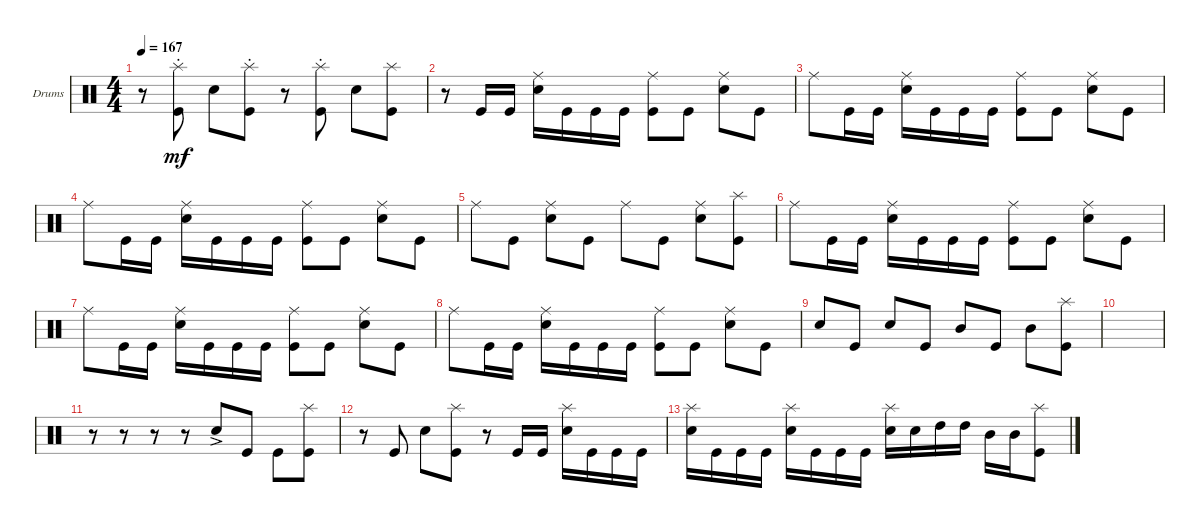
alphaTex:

\bracketExtendMode groupsimilarinstruments
\firstSystemTrackNameOrientation horizontal
\otherSystemsTrackNameOrientation horizontal
\track ("Drumkit" "Drums") {instrument percussion}
\staff {score}
\articulation defaults
\ts (4 4)
\tempo 167
\clef neutral
\ks c
r.8{dy mf} ("Splash (hit)"{st} "Kick (hit)").8 "Snare (hit) 2".8 ("Splash (hit)"{st} "Kick (hit)").8 r.8 ("Splash (hit)"{st} "Kick (hit)").8 "Snare (hit) 2".8 ("Kick (hit)" "Splash (hit)").8 |
r.8 "Kick (hit)".16 "Kick (hit)".16 ("Snare (hit) 2" "Ride (middle)").16 "Kick (hit)".16 "Kick (hit)".16 "Kick (hit)".16 ("Kick (hit)" "Ride (middle)").8 "Kick (hit)".8 ("Snare (hit) 2" "Ride (middle)").8 "Kick (hit)".8 |
"Ride (middle)".8 "Kick (hit)".16 "Kick (hit)".16 ("Snare (hit) 2" "Ride (middle)").16 "Kick (hit)".16 "Kick (hit)".16 "Kick (hit)".16 ("Kick (hit)" "Ride (middle)").8 "Kick (hit)".8 ("Snare (hit) 2" "Ride (middle)").8 "Kick (hit)".8 |
"Ride (middle)".8 "Kick (hit)".16 "Kick (hit)".16 ("Snare (hit) 2" "Ride (middle)").16 "Kick (hit)".16 "Kick (hit)".16 "Kick (hit)".16 ("Kick (hit)" "Ride (middle)").8 "Kick (hit)".8 ("Snare (hit) 2" "Ride (middle)").8 "Kick (hit)".8 |
"Ride (middle)".8 "Kick (hit)".8 ("Snare (hit) 2" "Ride (middle)").8 "Kick (hit)".8 "Ride (middle)".8 "Kick (hit)".8 ("Snare (hit) 2" "Ride (middle)").8 ("Kick (hit)" "Splash (hit)").8 |
"Ride (middle)".8 "Kick (hit)".16 "Kick (hit)".16 ("Snare (hit) 2" "Ride (middle)").16 "Kick (hit)".16 "Kick (hit)".16 "Kick (hit)".16 ("Kick (hit)" "Ride (middle)").8 "Kick (hit)".8 ("Snare (hit) 2" "Ride (middle)").8 "Kick (hit)".8 |
"Ride (middle)".8 "Kick (hit)".16 "Kick (hit)".16 ("Snare (hit) 2" "Ride (middle)").16 "Kick (hit)".16 "Kick (hit)".16 "Kick (hit)".16 ("Kick (hit)" "Ride (middle)").8 "Kick (hit)".8 ("Snare (hit) 2" "Ride (middle)").8 "Kick (hit)".8 |
"Ride (middle)".8 "Kick (hit)".16 "Kick (hit)".16 ("Snare (hit) 2" "Ride (middle)").16 "Kick (hit)".16 "Kick (hit)".16 "Kick (hit)".16 ("Kick (hit)" "Ride (middle)").8 "Kick (hit)".8 ("Snare (hit) 2" "Ride (middle)").8 "Kick (hit)".8 |
"Snare (hit) 2".8 "Kick (hit)".8 "Snare (hit) 2".8 "Kick (hit)".8 "Mid Tom (hit)".8 "Kick (hit)".8 "Mid Tom (hit)".8 ("Kick (hit)" "Splash (hit)").8 |
|
r.8 r.8 r.8 r.8 "Snare (hit) 2"{ac}.8 "Kick (hit)".8 "Kick (hit)".8 ("Kick (hit)" "Splash (hit)").8 |
r.8 "Kick (hit)".8 "Snare (hit) 2".8 ("Kick (hit)" "Splash (hit)").8 r.8 "Kick (hit)".16 "Kick (hit)".16 ("Snare (hit) 2" "Splash (hit)").16 "Kick (hit)".16 "Kick (hit)".16 "Kick (hit)".16 |
("Snare (hit) 2" "Splash (hit)").16 "Kick (hit)".16 "Kick (hit)".16 "Kick (hit)".16 ("Snare (hit) 2" "Splash (hit)").16 "Kick (hit)".16 "Kick (hit)".16 "Kick (hit)".16 ("Snare (hit) 2" "Splash (hit)").16 "Snare (hit) 2".16 "High Tom (hit)".16 "High Tom (hit)".16 "Mid Tom (hit)".16 "Mid Tom (hit)".16 ("Kick (hit)" "Splash (hit)").8
